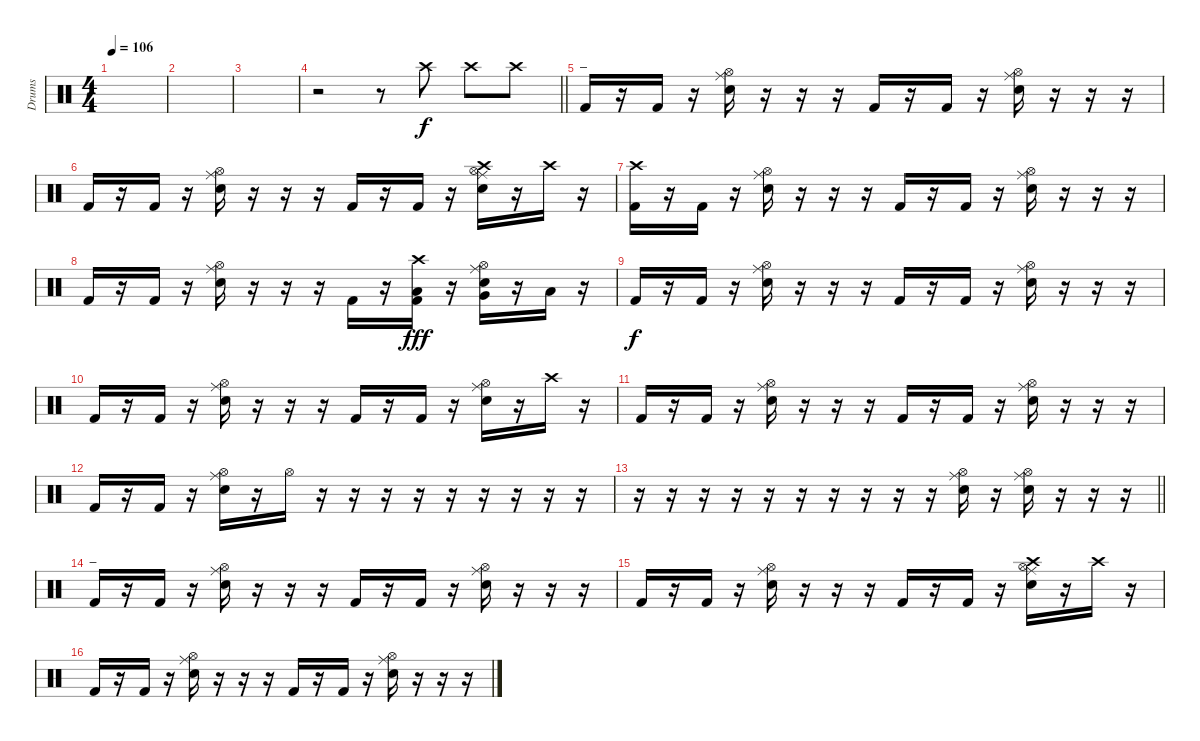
\track ("Drums" "Drums") {instrument percussion}
\staff {score}
\articulation defaults
\ts (4 4)
\tempo 106
\clef neutral
\ks c
|
|
|
\barLineRight lightlight
r.2 r.8 "Crash high (hit)".8 "Crash high (hit)".8 "Crash high (hit)".8 |
\section ("" "_")
"Kick (hit) 2".16 r.16 "Kick (hit) 2".16 r.16 ("Ride (middle)" "Hi-Hat (open)" "Snare (hit) 2").16 r.16 r.16 r.16 "Kick (hit) 2".16 r.16 "Kick (hit) 2".16 r.16 ("Ride (middle)" "Hi-Hat (open)" "Snare (hit) 2").16 r.16 r.16 r.16 |
"Kick (hit) 2".16 r.16 "Kick (hit) 2".16 r.16 ("Ride (middle)" "Hi-Hat (open)" "Snare (hit) 2").16 r.16 r.16 r.16 "Kick (hit) 2".16 r.16 "Kick (hit) 2".16 r.16 ("Ride (middle)" "Hi-Hat (open)" "Crash high (hit)" "Snare (hit) 2").16 r.16 "Crash high (hit)".16 r.16 |
("Crash high (hit)" "Kick (hit) 2").16 r.16 "Kick (hit) 2".16 r.16 ("Ride (middle)" "Hi-Hat (open)" "Snare (hit) 2").16 r.16 r.16 r.16 "Kick (hit) 2".16 r.16 "Kick (hit) 2".16 r.16 ("Ride (middle)" "Hi-Hat (open)" "Snare (hit) 2").16 r.16 r.16 r.16 |
"Kick (hit) 2".16 r.16 "Kick (hit) 2".16 r.16 ("Ride (middle)" "Hi-Hat (open)" "Snare (hit) 2").16 r.16 r.16 r.16 "Kick (hit) 2".16 r.16 ("Crash high (hit)" "Low Tom (hit)" "Kick (hit) 2").16{dy fff} r.16 ("Ride (middle)" "Hi-Hat (open)" "Snare (hit) 2" "Very Low Tom (hit)").16 r.16 "Low Floor Tom (hit)".16 r.16 |
"Kick (hit) 2".16{dy f} r.16 "Kick (hit) 2".16 r.16 ("Ride (middle)" "Hi-Hat (open)" "Snare (hit) 2").16 r.16 r.16 r.16 "Kick (hit) 2".16 r.16 "Kick (hit) 2".16 r.16 ("Ride (middle)" "Hi-Hat (open)" "Snare (hit) 2").16 r.16 r.16 r.16 |
"Kick (hit) 2".16 r.16 "Kick (hit) 2".16 r.16 ("Ride (middle)" "Hi-Hat (open)" "Snare (hit) 2").16 r.16 r.16 r.16 "Kick (hit) 2".16 r.16 "Kick (hit) 2".16 r.16 ("Ride (middle)" "Hi-Hat (open)" "Snare (hit) 2").16 r.16 "Crash high (hit)".16 r.16 |
"Kick (hit) 2".16 r.16 "Kick (hit) 2".16 r.16 ("Ride (middle)" "Hi-Hat (open)" "Snare (hit) 2").16 r.16 r.16 r.16 "Kick (hit) 2".16 r.16 "Kick (hit) 2".16 r.16 ("Ride (middle)" "Hi-Hat (open)" "Snare (hit) 2").16 r.16 r.16 r.16 |
"Kick (hit) 2".16 r.16 "Kick (hit) 2".16 r.16 ("Ride (middle)" "Hi-Hat (open)" "Snare (hit) 2").16 r.16 "Hi-Hat (open)".16 r.16 r.16 r.16 r.16 r.16 r.16 r.16 r.16 r.16 |
\barLineRight lightlight
r.16 r.16 r.16 r.16 r.16 r.16 r.16 r.16 r.16 r.16 ("Ride (middle)" "Hi-Hat (open)" "Snare (hit) 2").16 r.16 ("Ride (middle)" "Hi-Hat (open)" "Snare (hit) 2").16 r.16 r.16 r.16 |
\section ("" "_")
"Kick (hit) 2".16 r.16 "Kick (hit) 2".16 r.16 ("Ride (middle)" "Hi-Hat (open)" "Snare (hit) 2").16 r.16 r.16 r.16 "Kick (hit) 2".16 r.16 "Kick (hit) 2".16 r.16 ("Ride (middle)" "Hi-Hat (open)" "Snare (hit) 2").16 r.16 r.16 r.16 |
"Kick (hit) 2".16 r.16 "Kick (hit) 2".16 r.16 ("Ride (middle)" "Hi-Hat (open)" "Snare (hit) 2").16 r.16 r.16 r.16 "Kick (hit) 2".16 r.16 "Kick (hit) 2".16 r.16 ("Ride (middle)" "Hi-Hat (open)" "Crash high (hit)" "Snare (hit) 2").16 r.16 "Crash high (hit)".16 r.16 |
"Kick (hit) 2".16 r.16 "Kick (hit) 2".16 r.16 ("Ride (middle)" "Hi-Hat (open)" "Snare (hit) 2").16 r.16 r.16 r.16 "Kick (hit) 2".16 r.16 "Kick (hit) 2".16 r.16 ("Ride (middle)" "Hi-Hat (open)" "Snare (hit) 2").16 r.16 r.16 r.16
